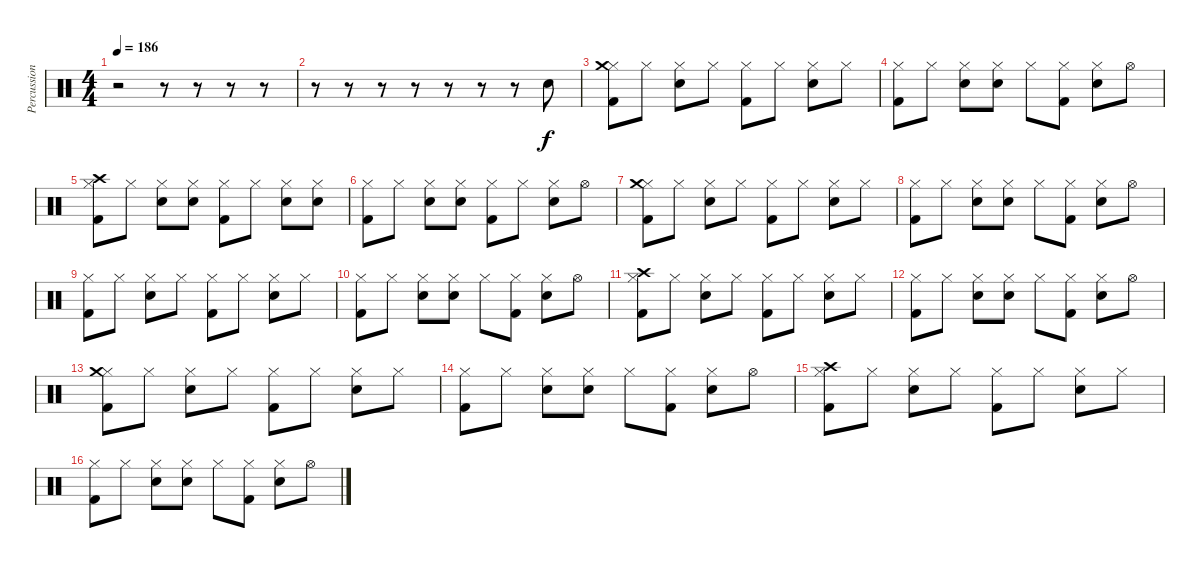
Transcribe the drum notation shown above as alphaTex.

\track ("Percussions" "Percussion") {instrument percussion}
\staff {score}
\articulation defaults
\ts (4 4)
\tempo 186
\clef neutral
\ks c
r.2{dy f} r.8 r.8 r.8 r.8 |
r.8 r.8 r.8 r.8 r.8 r.8 r.8 "Electric Snare (hit)".8 |
("Hi-Hat (closed)" "Crash medium (hit)" "Kick (hit) 2").8 "Hi-Hat (closed)".8 ("Hi-Hat (closed)" "Electric Snare (hit)").8 "Hi-Hat (closed)".8 ("Hi-Hat (closed)" "Kick (hit) 2").8 "Hi-Hat (closed)".8 ("Hi-Hat (closed)" "Electric Snare (hit)").8 "Hi-Hat (closed)".8 |
("Hi-Hat (closed)" "Kick (hit) 2").8 "Hi-Hat (closed)".8 ("Hi-Hat (closed)" "Electric Snare (hit)").8 ("Hi-Hat (closed)" "Electric Snare (hit)").8 "Hi-Hat (closed)".8 ("Hi-Hat (closed)" "Kick (hit) 2").8 ("Hi-Hat (closed)" "Electric Snare (hit)").8 "Hi-Hat (open)".8 |
("Hi-Hat (closed)" "Crash high (hit)" "Kick (hit) 2").8 "Hi-Hat (closed)".8 ("Hi-Hat (closed)" "Electric Snare (hit)").8 ("Hi-Hat (closed)" "Electric Snare (hit)").8 ("Hi-Hat (closed)" "Kick (hit) 2").8 "Hi-Hat (closed)".8 ("Hi-Hat (closed)" "Electric Snare (hit)").8 ("Hi-Hat (closed)" "Electric Snare (hit)").8 |
("Hi-Hat (closed)" "Kick (hit) 2").8 "Hi-Hat (closed)".8 ("Hi-Hat (closed)" "Electric Snare (hit)").8 ("Hi-Hat (closed)" "Electric Snare (hit)").8 ("Hi-Hat (closed)" "Kick (hit) 2").8 "Hi-Hat (closed)".8 ("Hi-Hat (closed)" "Electric Snare (hit)").8 "Hi-Hat (open)".8 |
("Hi-Hat (closed)" "Crash medium (hit)" "Kick (hit) 2").8 "Hi-Hat (closed)".8 ("Hi-Hat (closed)" "Electric Snare (hit)").8 "Hi-Hat (closed)".8 ("Hi-Hat (closed)" "Kick (hit) 2").8 "Hi-Hat (closed)".8 ("Hi-Hat (closed)" "Electric Snare (hit)").8 "Hi-Hat (closed)".8 |
("Hi-Hat (closed)" "Kick (hit) 2").8 "Hi-Hat (closed)".8 ("Hi-Hat (closed)" "Electric Snare (hit)").8 ("Hi-Hat (closed)" "Electric Snare (hit)").8 "Hi-Hat (closed)".8 ("Hi-Hat (closed)" "Kick (hit) 2").8 ("Hi-Hat (closed)" "Electric Snare (hit)").8 "Hi-Hat (open)".8 |
("Hi-Hat (closed)" "Kick (hit) 2").8 "Hi-Hat (closed)".8 ("Hi-Hat (closed)" "Electric Snare (hit)").8 "Hi-Hat (closed)".8 ("Hi-Hat (closed)" "Kick (hit) 2").8 "Hi-Hat (closed)".8 ("Hi-Hat (closed)" "Electric Snare (hit)").8 "Hi-Hat (closed)".8 |
("Hi-Hat (closed)" "Kick (hit) 2").8 "Hi-Hat (closed)".8 ("Hi-Hat (closed)" "Electric Snare (hit)").8 ("Hi-Hat (closed)" "Electric Snare (hit)").8 "Hi-Hat (closed)".8 ("Hi-Hat (closed)" "Kick (hit) 2").8 ("Hi-Hat (closed)" "Electric Snare (hit)").8 "Hi-Hat (open)".8 |
("Hi-Hat (closed)" "Crash high (hit)" "Kick (hit) 2").8 "Hi-Hat (closed)".8 ("Hi-Hat (closed)" "Electric Snare (hit)").8 "Hi-Hat (closed)".8 ("Hi-Hat (closed)" "Kick (hit) 2").8 "Hi-Hat (closed)".8 ("Hi-Hat (closed)" "Electric Snare (hit)").8 "Hi-Hat (closed)".8 |
("Hi-Hat (closed)" "Kick (hit) 2").8 "Hi-Hat (closed)".8 ("Hi-Hat (closed)" "Electric Snare (hit)").8 ("Hi-Hat (closed)" "Electric Snare (hit)").8 "Hi-Hat (closed)".8 ("Hi-Hat (closed)" "Kick (hit) 2").8 ("Hi-Hat (closed)" "Electric Snare (hit)").8 "Hi-Hat (open)".8 |
("Hi-Hat (closed)" "Crash medium (hit)" "Kick (hit) 2").8 "Hi-Hat (closed)".8 ("Hi-Hat (closed)" "Electric Snare (hit)").8 "Hi-Hat (closed)".8 ("Hi-Hat (closed)" "Kick (hit) 2").8 "Hi-Hat (closed)".8 ("Hi-Hat (closed)" "Electric Snare (hit)").8 "Hi-Hat (closed)".8 |
("Hi-Hat (closed)" "Kick (hit) 2").8 "Hi-Hat (closed)".8 ("Hi-Hat (closed)" "Electric Snare (hit)").8 ("Hi-Hat (closed)" "Electric Snare (hit)").8 "Hi-Hat (closed)".8 ("Hi-Hat (closed)" "Kick (hit) 2").8 ("Hi-Hat (closed)" "Electric Snare (hit)").8 "Hi-Hat (open)".8 |
("Hi-Hat (closed)" "Crash high (hit)" "Kick (hit) 2").8 "Hi-Hat (closed)".8 ("Hi-Hat (closed)" "Electric Snare (hit)").8 "Hi-Hat (closed)".8 ("Hi-Hat (closed)" "Kick (hit) 2").8 "Hi-Hat (closed)".8 ("Hi-Hat (closed)" "Electric Snare (hit)").8 "Hi-Hat (closed)".8 |
("Hi-Hat (closed)" "Kick (hit) 2").8 "Hi-Hat (closed)".8 ("Hi-Hat (closed)" "Electric Snare (hit)").8 ("Hi-Hat (closed)" "Electric Snare (hit)").8 "Hi-Hat (closed)".8 ("Hi-Hat (closed)" "Kick (hit) 2").8 ("Hi-Hat (closed)" "Electric Snare (hit)").8 "Hi-Hat (open)".8
